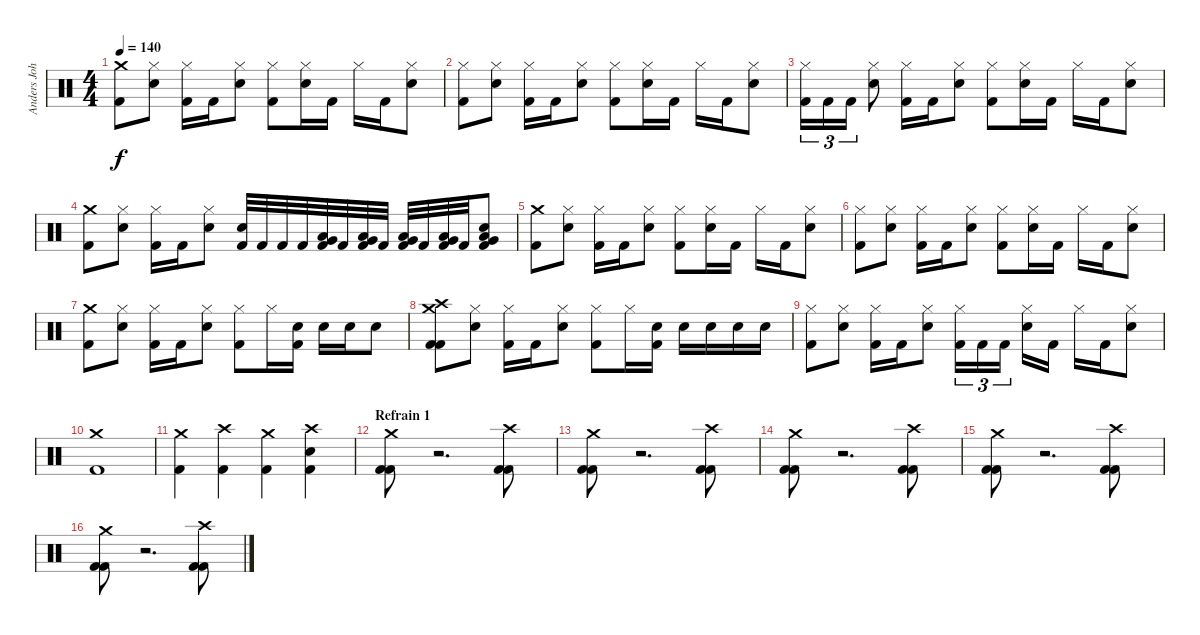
\track ("Anders Johansson :: Drums" "Anders Joh") {instrument percussion}
\staff {score}
\articulation defaults
\ts (4 4)
\tempo 140
\clef neutral
\ks c
("Crash medium (hit)" "Kick (hit) 2").8{dy f} ("Hi-Hat (closed)" "Snare (hit) 2").8 ("Hi-Hat (closed)" "Kick (hit) 2").16 "Kick (hit) 2".16 ("Hi-Hat (closed)" "Snare (hit) 2").8 ("Hi-Hat (closed)" "Kick (hit) 2").8 ("Hi-Hat (closed)" "Snare (hit) 2").16 "Kick (hit) 2".16 "Hi-Hat (closed)".16 "Kick (hit) 2".16 ("Hi-Hat (closed)" "Snare (hit) 2").8 |
("Hi-Hat (closed)" "Kick (hit) 2").8 ("Hi-Hat (closed)" "Snare (hit) 2").8 ("Hi-Hat (closed)" "Kick (hit) 2").16 "Kick (hit) 2".16 ("Hi-Hat (closed)" "Snare (hit) 2").8 ("Hi-Hat (closed)" "Kick (hit) 2").8 ("Hi-Hat (closed)" "Snare (hit) 2").16 "Kick (hit) 2".16 "Hi-Hat (closed)".16 "Kick (hit) 2".16 ("Hi-Hat (closed)" "Snare (hit) 2").8 |
("Hi-Hat (closed)" "Kick (hit) 2").16{tu (3 2)} "Kick (hit) 2".16{tu (3 2)} "Kick (hit) 2".16{tu (3 2)} ("Hi-Hat (closed)" "Snare (hit) 2").8 ("Hi-Hat (closed)" "Kick (hit) 2").16 "Kick (hit) 2".16 ("Hi-Hat (closed)" "Snare (hit) 2").8 ("Hi-Hat (closed)" "Kick (hit) 2").8 ("Hi-Hat (closed)" "Snare (hit) 2").16 "Kick (hit) 2".16 "Hi-Hat (closed)".16 "Kick (hit) 2".16 ("Hi-Hat (closed)" "Snare (hit) 2").8 |
("Crash medium (hit)" "Kick (hit) 2").8 ("Hi-Hat (closed)" "Snare (hit) 2").8 ("Hi-Hat (closed)" "Kick (hit) 2").16 "Kick (hit) 2".16 ("Hi-Hat (closed)" "Snare (hit) 2").8 ("Snare (hit) 2" "Kick (hit) 2").32 "Kick (hit) 2".32 "Kick (hit) 2".32 "Kick (hit) 2".32 ("Low Tom (hit)" "Very Low Tom (hit)" "Kick (hit) 2").32 "Kick (hit) 2".32 ("Low Tom (hit)" "Very Low Tom (hit)" "Kick (hit) 2").32 "Kick (hit) 2".32 ("Low Tom (hit)" "Very Low Tom (hit)" "Kick (hit) 2").32 "Kick (hit) 2".32 ("Low Tom (hit)" "Very Low Tom (hit)" "Kick (hit) 2").32 "Kick (hit) 2".32 ("Snare (hit) 2" "Low Tom (hit)" "Very Low Tom (hit)" "Kick (hit) 2").8 |
("Crash medium (hit)" "Kick (hit) 2").8 ("Hi-Hat (closed)" "Snare (hit) 2").8 ("Hi-Hat (closed)" "Kick (hit) 2").16 "Kick (hit) 2".16 ("Hi-Hat (closed)" "Snare (hit) 2").8 ("Hi-Hat (closed)" "Kick (hit) 2").8 ("Hi-Hat (closed)" "Snare (hit) 2").16 "Kick (hit) 2".16 "Hi-Hat (closed)".16 "Kick (hit) 2".16 ("Hi-Hat (closed)" "Snare (hit) 2").8 |
("Hi-Hat (closed)" "Kick (hit) 2").8 ("Hi-Hat (closed)" "Snare (hit) 2").8 ("Hi-Hat (closed)" "Kick (hit) 2").16 "Kick (hit) 2".16 ("Hi-Hat (closed)" "Snare (hit) 2").8 ("Hi-Hat (closed)" "Kick (hit) 2").8 ("Hi-Hat (closed)" "Snare (hit) 2").16 "Kick (hit) 2".16 "Hi-Hat (closed)".16 "Kick (hit) 2".16 ("Hi-Hat (closed)" "Snare (hit) 2").8 |
("Crash medium (hit)" "Kick (hit) 2").8 ("Hi-Hat (closed)" "Snare (hit) 2").8 ("Hi-Hat (closed)" "Kick (hit) 2").16 "Kick (hit) 2".16 ("Hi-Hat (closed)" "Snare (hit) 2").8 ("Hi-Hat (closed)" "Kick (hit) 2").8 "Hi-Hat (closed)".16 ("Snare (hit) 2" "Kick (hit) 2").16 "Snare (hit) 2".16 "Snare (hit) 2".16 "Snare (hit) 2".8 |
("Crash medium (hit)" "Crash high (hit)" "Kick (hit) 2" "Kick (hit) 2").8 ("Hi-Hat (closed)" "Snare (hit) 2").8 ("Hi-Hat (closed)" "Kick (hit) 2").16 "Kick (hit) 2".16 ("Hi-Hat (closed)" "Snare (hit) 2").8 ("Hi-Hat (closed)" "Kick (hit) 2").8 "Hi-Hat (closed)".16 ("Snare (hit) 2" "Kick (hit) 2").16 "Snare (hit) 2".16 "Snare (hit) 2".16 "Snare (hit) 2".16 "Snare (hit) 2".16 |
("Hi-Hat (closed)" "Kick (hit) 2").8 ("Hi-Hat (closed)" "Snare (hit) 2").8 ("Hi-Hat (closed)" "Kick (hit) 2").16 "Kick (hit) 2".16 ("Hi-Hat (closed)" "Snare (hit) 2").8 ("Hi-Hat (closed)" "Kick (hit) 2").16{tu (3 2)} "Kick (hit) 2".16{tu (3 2)} "Kick (hit) 2".16{tu (3 2)} ("Hi-Hat (closed)" "Snare (hit) 2").16 "Kick (hit) 2".16 "Hi-Hat (closed)".16 "Kick (hit) 2".16 ("Hi-Hat (closed)" "Snare (hit) 2").8 |
("Crash medium (hit)" "Kick (hit) 2").1 |
("Crash medium (hit)" "Kick (hit) 2").4 ("Crash high (hit)" "Kick (hit) 2").4 ("Crash medium (hit)" "Kick (hit) 2").4 ("Crash high (hit)" "Snare (hit) 2" "Kick (hit) 2").4 |
\section ("" "Refrain 1")
("Crash medium (hit)" "Kick (hit) 2" "Kick (hit) 2").8 r.2{d} ("Crash high (hit)" "Kick (hit) 2" "Kick (hit) 2").8 |
("Crash medium (hit)" "Kick (hit) 2" "Kick (hit) 2").8 r.2{d} ("Crash high (hit)" "Kick (hit) 2" "Kick (hit) 2").8 |
("Crash medium (hit)" "Kick (hit) 2" "Kick (hit) 2").8 r.2{d} ("Crash high (hit)" "Kick (hit) 2" "Kick (hit) 2").8 |
("Crash medium (hit)" "Kick (hit) 2" "Kick (hit) 2").8 r.2{d} ("Crash high (hit)" "Kick (hit) 2" "Kick (hit) 2").8 |
("Crash medium (hit)" "Kick (hit) 2" "Kick (hit) 2").8 r.2{d} ("Crash high (hit)" "Kick (hit) 2" "Kick (hit) 2").8
